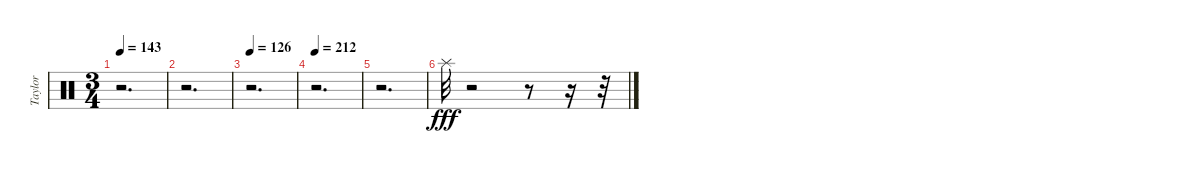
\track ("Taylor" "Taylor") {instrument percussion}
\staff {score}
\articulation defaults
\ts (3 4)
\tempo 143
\clef neutral
\ks c
r.2{d dy f} |
r.2{d} |
\tempo 126
r.2{d} |
\tempo 156
\tempo 212
r.2{d} |
r.2{d} |
"Splash (hit)".32{dy fff} r.2 r.8 r.16 r.32
